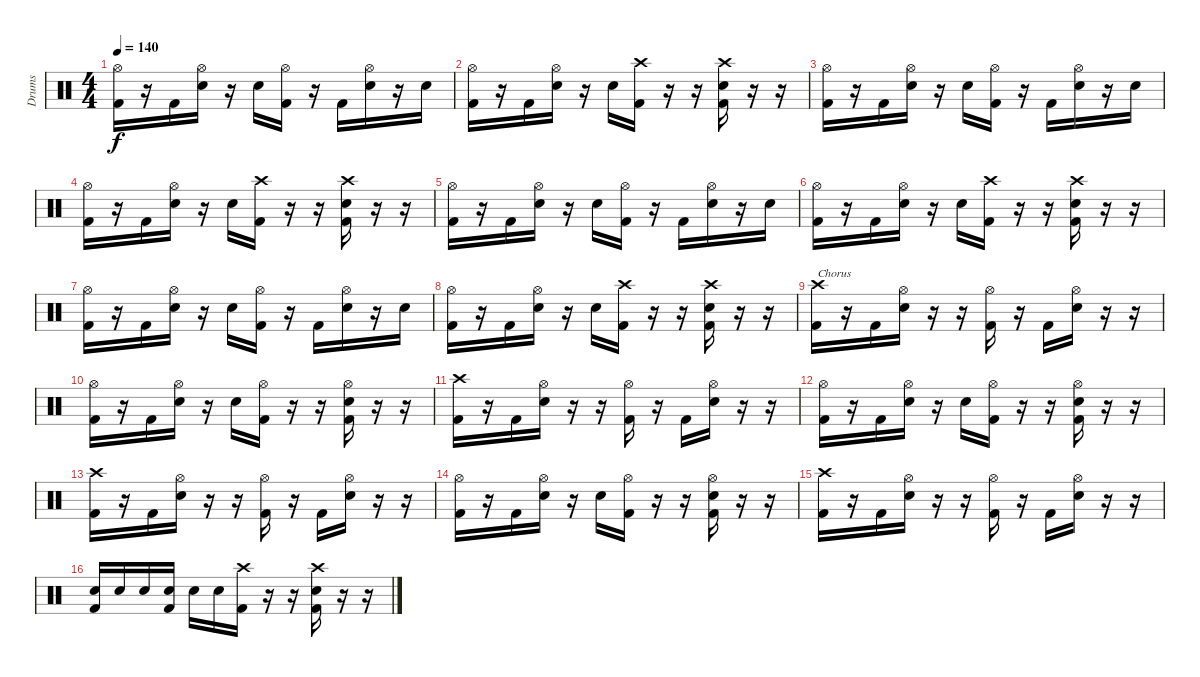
\track ("Drums" "Drums") {instrument percussion}
\staff {score}
\articulation defaults
\ts (4 4)
\tempo 140
\clef neutral
\ks c
("Hi-Hat (open)" "Kick (hit) 2").16{dy f} r.16 "Kick (hit) 2".16 ("Hi-Hat (open)" "Snare (hit) 2").16 r.16 "Snare (hit) 2".16 ("Hi-Hat (open)" "Kick (hit) 2").16 r.16 "Kick (hit) 2".16 ("Hi-Hat (open)" "Snare (hit) 2").16 r.16 "Snare (hit) 2".16 |
("Hi-Hat (open)" "Kick (hit) 2").16 r.16 "Kick (hit) 2".16 ("Hi-Hat (open)" "Snare (hit) 2").16 r.16 "Snare (hit) 2".16 ("Crash high (hit)" "Kick (hit) 2").16 r.16 r.16 ("Crash high (hit)" "Snare (hit) 2" "Kick (hit) 2").16 r.16 r.16 |
("Hi-Hat (open)" "Kick (hit) 2").16 r.16 "Kick (hit) 2".16 ("Hi-Hat (open)" "Snare (hit) 2").16 r.16 "Snare (hit) 2".16 ("Hi-Hat (open)" "Kick (hit) 2").16 r.16 "Kick (hit) 2".16 ("Hi-Hat (open)" "Snare (hit) 2").16 r.16 "Snare (hit) 2".16 |
("Hi-Hat (open)" "Kick (hit) 2").16 r.16 "Kick (hit) 2".16 ("Hi-Hat (open)" "Snare (hit) 2").16 r.16 "Snare (hit) 2".16 ("Crash high (hit)" "Kick (hit) 2").16 r.16 r.16 ("Crash high (hit)" "Snare (hit) 2" "Kick (hit) 2").16 r.16 r.16 |
("Hi-Hat (open)" "Kick (hit) 2").16 r.16 "Kick (hit) 2".16 ("Hi-Hat (open)" "Snare (hit) 2").16 r.16 "Snare (hit) 2".16 ("Hi-Hat (open)" "Kick (hit) 2").16 r.16 "Kick (hit) 2".16 ("Hi-Hat (open)" "Snare (hit) 2").16 r.16 "Snare (hit) 2".16 |
("Hi-Hat (open)" "Kick (hit) 2").16 r.16 "Kick (hit) 2".16 ("Hi-Hat (open)" "Snare (hit) 2").16 r.16 "Snare (hit) 2".16 ("Crash high (hit)" "Kick (hit) 2").16 r.16 r.16 ("Crash high (hit)" "Snare (hit) 2" "Kick (hit) 2").16 r.16 r.16 |
("Hi-Hat (open)" "Kick (hit) 2").16 r.16 "Kick (hit) 2".16 ("Hi-Hat (open)" "Snare (hit) 2").16 r.16 "Snare (hit) 2".16 ("Hi-Hat (open)" "Kick (hit) 2").16 r.16 "Kick (hit) 2".16 ("Hi-Hat (open)" "Snare (hit) 2").16 r.16 "Snare (hit) 2".16 |
("Hi-Hat (open)" "Kick (hit) 2").16 r.16 "Kick (hit) 2".16 ("Hi-Hat (open)" "Snare (hit) 2").16 r.16 "Snare (hit) 2".16 ("Crash high (hit)" "Kick (hit) 2").16 r.16 r.16 ("Crash high (hit)" "Snare (hit) 2" "Kick (hit) 2").16 r.16 r.16 |
("Crash high (hit)" "Kick (hit) 2").16{txt "Chorus"} r.16 "Kick (hit) 2".16 ("Hi-Hat (open)" "Snare (hit) 2").16 r.16 r.16 ("Hi-Hat (open)" "Kick (hit) 2").16 r.16 "Kick (hit) 2".16 ("Hi-Hat (open)" "Snare (hit) 2").16 r.16 r.16 |
("Hi-Hat (open)" "Kick (hit) 2").16 r.16 "Kick (hit) 2".16 ("Hi-Hat (open)" "Snare (hit) 2").16 r.16 "Snare (hit) 2".16 ("Hi-Hat (open)" "Kick (hit) 2").16 r.16 r.16 ("Hi-Hat (open)" "Snare (hit) 2" "Kick (hit) 2").16 r.16 r.16 |
("Crash high (hit)" "Kick (hit) 2").16 r.16 "Kick (hit) 2".16 ("Hi-Hat (open)" "Snare (hit) 2").16 r.16 r.16 ("Hi-Hat (open)" "Kick (hit) 2").16 r.16 "Kick (hit) 2".16 ("Hi-Hat (open)" "Snare (hit) 2").16 r.16 r.16 |
("Hi-Hat (open)" "Kick (hit) 2").16 r.16 "Kick (hit) 2".16 ("Hi-Hat (open)" "Snare (hit) 2").16 r.16 "Snare (hit) 2".16 ("Hi-Hat (open)" "Kick (hit) 2").16 r.16 r.16 ("Hi-Hat (open)" "Snare (hit) 2" "Kick (hit) 2").16 r.16 r.16 |
("Crash high (hit)" "Kick (hit) 2").16 r.16 "Kick (hit) 2".16 ("Hi-Hat (open)" "Snare (hit) 2").16 r.16 r.16 ("Hi-Hat (open)" "Kick (hit) 2").16 r.16 "Kick (hit) 2".16 ("Hi-Hat (open)" "Snare (hit) 2").16 r.16 r.16 |
("Hi-Hat (open)" "Kick (hit) 2").16 r.16 "Kick (hit) 2".16 ("Hi-Hat (open)" "Snare (hit) 2").16 r.16 "Snare (hit) 2".16 ("Hi-Hat (open)" "Kick (hit) 2").16 r.16 r.16 ("Hi-Hat (open)" "Snare (hit) 2" "Kick (hit) 2").16 r.16 r.16 |
("Crash high (hit)" "Kick (hit) 2").16 r.16 "Kick (hit) 2".16 ("Hi-Hat (open)" "Snare (hit) 2").16 r.16 r.16 ("Hi-Hat (open)" "Kick (hit) 2").16 r.16 "Kick (hit) 2".16 ("Hi-Hat (open)" "Snare (hit) 2").16 r.16 r.16 |
("Snare (hit) 2" "Kick (hit) 2").16 "Snare (hit) 2".16 "Snare (hit) 2".16 ("Snare (hit) 2" "Kick (hit) 2").16 "Snare (hit) 2".16 "Snare (hit) 2".16 ("Crash high (hit)" "Kick (hit) 2").16 r.16 r.16 ("Crash high (hit)" "Snare (hit) 2" "Kick (hit) 2").16 r.16 r.16
